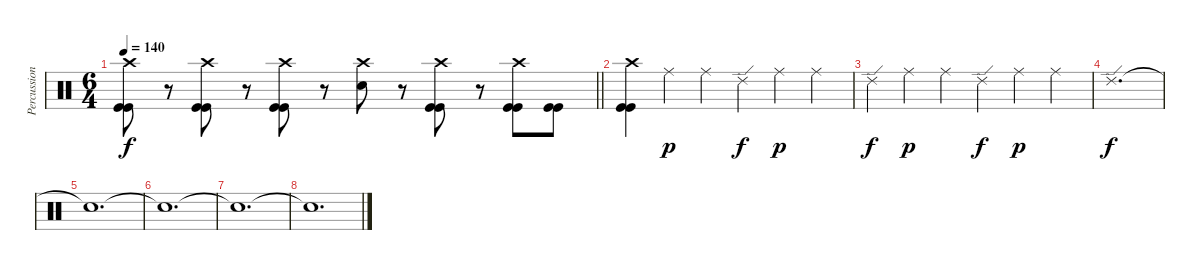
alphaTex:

\track ("Percussion" "Percussion") {instrument percussion}
\staff {score}
\articulation defaults
\ts (6 4)
\tempo 140
\clef neutral
\barLineRight lightlight
\ks c
("Crash high (hit)" "Kick (hit)" "Kick (hit)").8{dy f} r.8 ("Crash high (hit)" "Kick (hit)" "Kick (hit)").8 r.8 ("Crash high (hit)" "Kick (hit)" "Kick (hit)").8 r.8 ("Crash high (hit)" "Snare (hit) 2").8 r.8 ("Crash high (hit)" "Kick (hit)" "Kick (hit)").8 r.8 ("Crash high (hit)" "Kick (hit)" "Kick (hit)").8 ("Kick (hit)" "Kick (hit)").8 |
("Crash high (hit)" "Kick (hit)" "Kick (hit)").4 "Ride (middle)".4{dy p} "Ride (middle)".4 "Ride (edge) 2".4{dy f} "Ride (middle)".4{dy p} "Ride (middle)".4 |
"Ride (edge) 2".4{dy f} "Ride (middle)".4{dy p} "Ride (middle)".4 "Ride (edge) 2".4{dy f} "Ride (middle)".4{dy p} "Ride (middle)".4 |
"Ride (edge) 2".1{d dy f} |
"Snare (hit)"{t}.1{d} |
"Snare (hit)"{t}.1{d} |
"Snare (hit)"{t}.1{d} |
"Snare (hit)"{t}.1{d}
